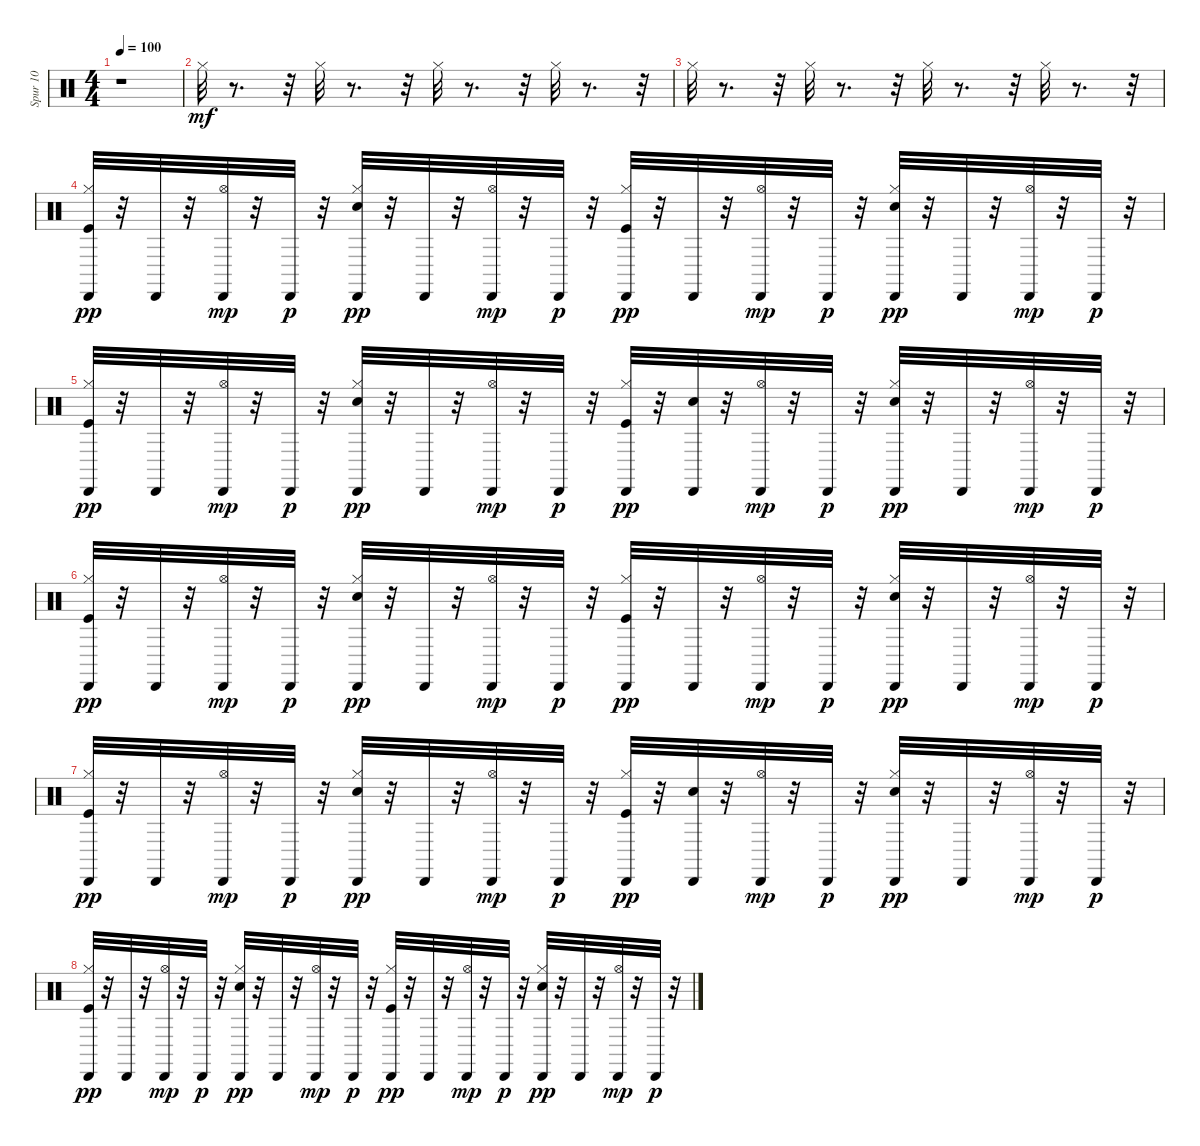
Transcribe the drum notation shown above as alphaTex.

\track ("Spur 10" "Spur 10") {instrument percussion}
\staff {score}
\articulation defaults
\ts (4 4)
\tempo 100
\clef neutral
\ks c
r.1{dy mf} |
"Hi-Hat (closed)".32 r.8{d} r.32 "Hi-Hat (closed)".32 r.8{d} r.32 "Hi-Hat (closed)".32 r.8{d} r.32 "Hi-Hat (closed)".32 r.8{d} r.32 |
"Hi-Hat (closed)".32 r.8{d} r.32 "Hi-Hat (closed)".32 r.8{d} r.32 "Hi-Hat (closed)".32 r.8{d} r.32 "Hi-Hat (closed)".32 r.8{d} r.32 |
("Kick (hit)" "Hi-Hat (closed)" "Cabasa (hit)").32{dy pp} r.32 "Cabasa (hit)".32 r.32 ("Hi-Hat (open)" "Cabasa (hit)").32{dy mp} r.32 "Cabasa (hit)".32{dy p} r.32 ("Electric Snare (hit)" "Hi-Hat (closed)" "Cabasa (hit)").32{dy pp} r.32 "Cabasa (hit)".32 r.32 ("Hi-Hat (open)" "Cabasa (hit)").32{dy mp} r.32 "Cabasa (hit)".32{dy p} r.32 ("Kick (hit)" "Hi-Hat (closed)" "Cabasa (hit)").32{dy pp} r.32 "Cabasa (hit)".32 r.32 ("Hi-Hat (open)" "Cabasa (hit)").32{dy mp} r.32 "Cabasa (hit)".32{dy p} r.32 ("Electric Snare (hit)" "Hi-Hat (closed)" "Cabasa (hit)").32{dy pp} r.32 "Cabasa (hit)".32 r.32 ("Hi-Hat (open)" "Cabasa (hit)").32{dy mp} r.32 "Cabasa (hit)".32{dy p} r.32 |
("Kick (hit)" "Hi-Hat (closed)" "Cabasa (hit)").32{dy pp} r.32 "Cabasa (hit)".32 r.32 ("Hi-Hat (open)" "Cabasa (hit)").32{dy mp} r.32 "Cabasa (hit)".32{dy p} r.32 ("Electric Snare (hit)" "Hi-Hat (closed)" "Cabasa (hit)").32{dy pp} r.32 "Cabasa (hit)".32 r.32 ("Hi-Hat (open)" "Cabasa (hit)").32{dy mp} r.32 "Cabasa (hit)".32{dy p} r.32 ("Kick (hit)" "Hi-Hat (closed)" "Cabasa (hit)").32{dy pp} r.32 ("Electric Snare (hit)" "Cabasa (hit)").32 r.32 ("Hi-Hat (open)" "Cabasa (hit)").32{dy mp} r.32 "Cabasa (hit)".32{dy p} r.32 ("Electric Snare (hit)" "Hi-Hat (closed)" "Cabasa (hit)").32{dy pp} r.32 "Cabasa (hit)".32 r.32 ("Hi-Hat (open)" "Cabasa (hit)").32{dy mp} r.32 "Cabasa (hit)".32{dy p} r.32 |
("Kick (hit)" "Hi-Hat (closed)" "Cabasa (hit)").32{dy pp} r.32 "Cabasa (hit)".32 r.32 ("Hi-Hat (open)" "Cabasa (hit)").32{dy mp} r.32 "Cabasa (hit)".32{dy p} r.32 ("Electric Snare (hit)" "Hi-Hat (closed)" "Cabasa (hit)").32{dy pp} r.32 "Cabasa (hit)".32 r.32 ("Hi-Hat (open)" "Cabasa (hit)").32{dy mp} r.32 "Cabasa (hit)".32{dy p} r.32 ("Kick (hit)" "Hi-Hat (closed)" "Cabasa (hit)").32{dy pp} r.32 "Cabasa (hit)".32 r.32 ("Hi-Hat (open)" "Cabasa (hit)").32{dy mp} r.32 "Cabasa (hit)".32{dy p} r.32 ("Electric Snare (hit)" "Hi-Hat (closed)" "Cabasa (hit)").32{dy pp} r.32 "Cabasa (hit)".32 r.32 ("Hi-Hat (open)" "Cabasa (hit)").32{dy mp} r.32 "Cabasa (hit)".32{dy p} r.32 |
("Kick (hit)" "Hi-Hat (closed)" "Cabasa (hit)").32{dy pp} r.32 "Cabasa (hit)".32 r.32 ("Hi-Hat (open)" "Cabasa (hit)").32{dy mp} r.32 "Cabasa (hit)".32{dy p} r.32 ("Electric Snare (hit)" "Hi-Hat (closed)" "Cabasa (hit)").32{dy pp} r.32 "Cabasa (hit)".32 r.32 ("Hi-Hat (open)" "Cabasa (hit)").32{dy mp} r.32 "Cabasa (hit)".32{dy p} r.32 ("Kick (hit)" "Hi-Hat (closed)" "Cabasa (hit)").32{dy pp} r.32 ("Electric Snare (hit)" "Cabasa (hit)").32 r.32 ("Hi-Hat (open)" "Cabasa (hit)").32{dy mp} r.32 "Cabasa (hit)".32{dy p} r.32 ("Electric Snare (hit)" "Hi-Hat (closed)" "Cabasa (hit)").32{dy pp} r.32 "Cabasa (hit)".32 r.32 ("Hi-Hat (open)" "Cabasa (hit)").32{dy mp} r.32 "Cabasa (hit)".32{dy p} r.32 |
("Kick (hit)" "Hi-Hat (closed)" "Cabasa (hit)").32{dy pp} r.32 "Cabasa (hit)".32 r.32 ("Hi-Hat (open)" "Cabasa (hit)").32{dy mp} r.32 "Cabasa (hit)".32{dy p} r.32 ("Electric Snare (hit)" "Hi-Hat (closed)" "Cabasa (hit)").32{dy pp} r.32 "Cabasa (hit)".32 r.32 ("Hi-Hat (open)" "Cabasa (hit)").32{dy mp} r.32 "Cabasa (hit)".32{dy p} r.32 ("Kick (hit)" "Hi-Hat (closed)" "Cabasa (hit)").32{dy pp} r.32 "Cabasa (hit)".32 r.32 ("Hi-Hat (open)" "Cabasa (hit)").32{dy mp} r.32 "Cabasa (hit)".32{dy p} r.32 ("Electric Snare (hit)" "Hi-Hat (closed)" "Cabasa (hit)").32{dy pp} r.32 "Cabasa (hit)".32 r.32 ("Hi-Hat (open)" "Cabasa (hit)").32{dy mp} r.32 "Cabasa (hit)".32{dy p} r.32
